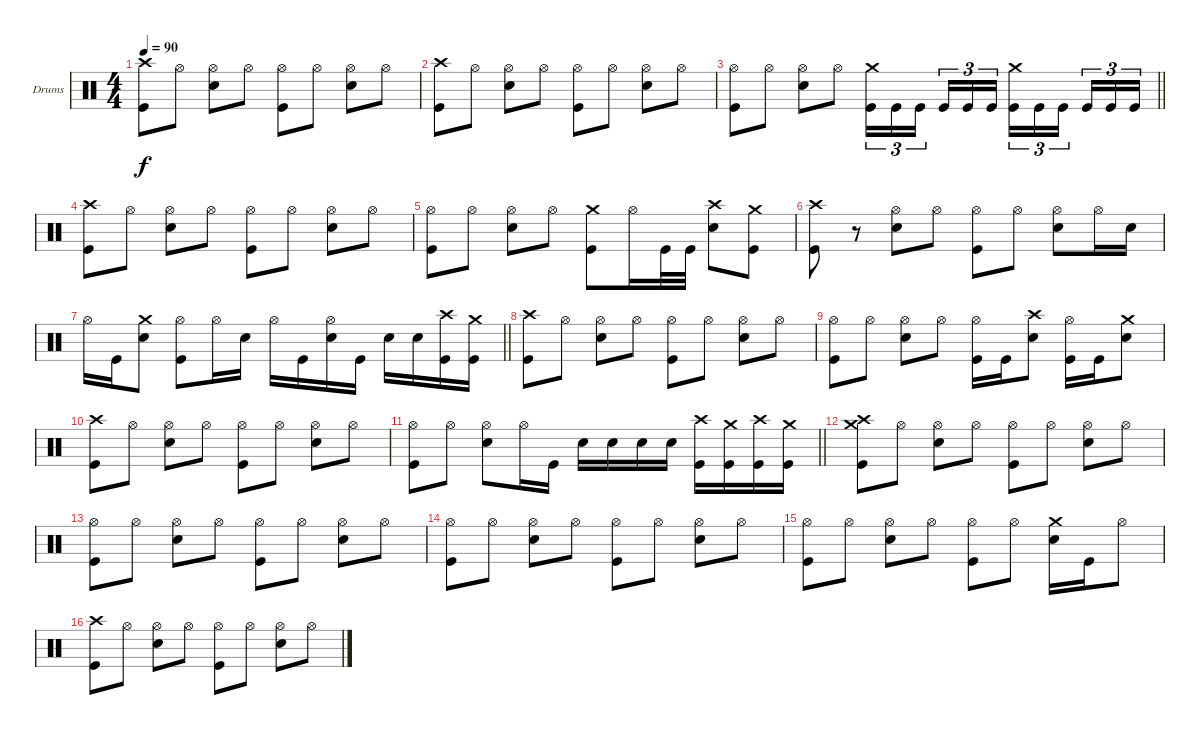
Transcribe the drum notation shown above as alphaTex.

\bracketExtendMode groupsimilarinstruments
\firstSystemTrackNameOrientation horizontal
\otherSystemsTrackNameOrientation horizontal
\track ("Drumkit" "Drums") {instrument percussion}
\staff {score}
\articulation defaults
\ts (4 4)
\tempo 90
\clef neutral
\ks c
("Crash high (hit)" "Kick (hit)").8{dy f} "Hi-Hat (open)".8 ("Hi-Hat (open)" "Snare (hit) 2").8 "Hi-Hat (open)".8 ("Hi-Hat (open)" "Kick (hit)").8 "Hi-Hat (open)".8 ("Hi-Hat (open)" "Snare (hit) 2").8 "Hi-Hat (open)".8 |
("Crash high (hit)" "Kick (hit)").8 "Hi-Hat (open)".8 ("Hi-Hat (open)" "Snare (hit) 2").8 "Hi-Hat (open)".8 ("Hi-Hat (open)" "Kick (hit)").8 "Hi-Hat (open)".8 ("Hi-Hat (open)" "Snare (hit) 2").8 "Hi-Hat (open)".8 |
\barLineRight lightlight
("Hi-Hat (open)" "Kick (hit)").8 "Hi-Hat (open)".8 ("Hi-Hat (open)" "Snare (hit) 2").8 "Hi-Hat (open)".8 ("Crash medium (hit)" "Kick (hit)").16{tu (3 2)} "Kick (hit)".16{tu (3 2)} "Kick (hit)".16{tu (3 2)} "Kick (hit)".16{tu (3 2)} "Kick (hit)".16{tu (3 2)} "Kick (hit)".16{tu (3 2)} ("Crash medium (hit)" "Kick (hit)").16{tu (3 2)} "Kick (hit)".16{tu (3 2)} "Kick (hit)".16{tu (3 2)} "Kick (hit)".16{tu (3 2)} "Kick (hit)".16{tu (3 2)} "Kick (hit)".16{tu (3 2)} |
("Crash high (hit)" "Kick (hit)").8 "Hi-Hat (open)".8 ("Hi-Hat (open)" "Snare (hit) 2").8 "Hi-Hat (open)".8 ("Hi-Hat (open)" "Kick (hit)").8 "Hi-Hat (open)".8 ("Hi-Hat (open)" "Snare (hit) 2").8 "Hi-Hat (open)".8 |
("Hi-Hat (open)" "Kick (hit)").8 "Hi-Hat (open)".8 ("Hi-Hat (open)" "Snare (hit) 2").8 "Hi-Hat (open)".8 ("Crash medium (hit)" "Kick (hit)").8 "Hi-Hat (open)".16 "Kick (hit)".32 "Kick (hit)".32 ("Crash high (hit)" "Snare (hit) 2").8 ("Crash medium (hit)" "Kick (hit)").8 |
("Crash high (hit)" "Kick (hit)").8 r.8 ("Hi-Hat (open)" "Snare (hit) 2").8 "Hi-Hat (open)".8 ("Hi-Hat (open)" "Kick (hit)").8 "Hi-Hat (open)".8 ("Hi-Hat (open)" "Snare (hit) 2").8 "Hi-Hat (open)".16 "Snare (hit) 2".16 |
\barLineRight lightlight "Hi-Hat (open)".16 "Kick (hit)".16
("Crash medium (hit)" "Snare (hit) 2").8 ("Hi-Hat (open)" "Kick (hit)").8 "Hi-Hat (open)".16 "Snare (hit) 2".16 "Hi-Hat (open)".16 "Kick (hit)".16 ("Hi-Hat (open)" "Snare (hit) 2").16 "Kick (hit)".16 "Snare (hit) 2".16 "Snare (hit) 2".16 ("Crash high (hit)" "Kick (hit)").16 ("Crash medium (hit)" "Kick (hit)").16 |
("Crash high (hit)" "Kick (hit)").8 "Hi-Hat (open)".8 ("Hi-Hat (open)" "Snare (hit) 2").8 "Hi-Hat (open)".8 ("Hi-Hat (open)" "Kick (hit)").8 "Hi-Hat (open)".8 ("Hi-Hat (open)" "Snare (hit) 2").8 "Hi-Hat (open)".8 |
("Hi-Hat (open)" "Kick (hit)").8 "Hi-Hat (open)".8 ("Hi-Hat (open)" "Snare (hit) 2").8 "Hi-Hat (open)".8 ("Hi-Hat (open)" "Kick (hit)").16 "Kick (hit)".16 ("Crash high (hit)" "Snare (hit) 2").8 ("Hi-Hat (open)" "Kick (hit)").16 "Kick (hit)".16 ("Crash medium (hit)" "Snare (hit) 2").8 |
("Crash high (hit)" "Kick (hit)").8 "Hi-Hat (open)".8 ("Hi-Hat (open)" "Snare (hit) 2").8 "Hi-Hat (open)".8 ("Hi-Hat (open)" "Kick (hit)").8 "Hi-Hat (open)".8 ("Hi-Hat (open)" "Snare (hit) 2").8 "Hi-Hat (open)".8 |
\barLineRight lightlight
("Hi-Hat (open)" "Kick (hit)").8 "Hi-Hat (open)".8 ("Hi-Hat (open)" "Snare (hit) 2").8 "Hi-Hat (open)".16 "Kick (hit)".16 "Snare (hit) 2".16 "Snare (hit) 2".16 "Snare (hit) 2".16 "Snare (hit) 2".16 ("Crash high (hit)" "Kick (hit)").16 ("Crash medium (hit)" "Kick (hit)").16 ("Crash high (hit)" "Kick (hit)").16 ("Crash medium (hit)" "Kick (hit)").16 |
("Crash high (hit)" "Crash medium (hit)" "Kick (hit)").8 "Hi-Hat (open)".8 ("Hi-Hat (open)" "Snare (hit) 2").8 "Hi-Hat (open)".8 ("Hi-Hat (open)" "Kick (hit)").8 "Hi-Hat (open)".8 ("Hi-Hat (open)" "Snare (hit) 2").8 "Hi-Hat (open)".8 |
("Hi-Hat (open)" "Kick (hit)").8 "Hi-Hat (open)".8 ("Hi-Hat (open)" "Snare (hit) 2").8 "Hi-Hat (open)".8 ("Hi-Hat (open)" "Kick (hit)").8 "Hi-Hat (open)".8 ("Hi-Hat (open)" "Snare (hit) 2").8 "Hi-Hat (open)".8 |
("Hi-Hat (open)" "Kick (hit)").8 "Hi-Hat (open)".8 ("Hi-Hat (open)" "Snare (hit) 2").8 "Hi-Hat (open)".8 ("Hi-Hat (open)" "Kick (hit)").8 "Hi-Hat (open)".8 ("Hi-Hat (open)" "Snare (hit) 2").8 "Hi-Hat (open)".8 |
("Hi-Hat (open)" "Kick (hit)").8 "Hi-Hat (open)".8 ("Hi-Hat (open)" "Snare (hit) 2").8 "Hi-Hat (open)".8 ("Hi-Hat (open)" "Kick (hit)").8 "Hi-Hat (open)".8 ("Crash medium (hit)" "Snare (hit) 2").16 "Kick (hit)".16 "Hi-Hat (open)".8 |
("Crash high (hit)" "Kick (hit)").8 "Hi-Hat (open)".8 ("Hi-Hat (open)" "Snare (hit) 2").8 "Hi-Hat (open)".8 ("Hi-Hat (open)" "Kick (hit)").8 "Hi-Hat (open)".8 ("Hi-Hat (open)" "Snare (hit) 2").8 "Hi-Hat (open)".8
